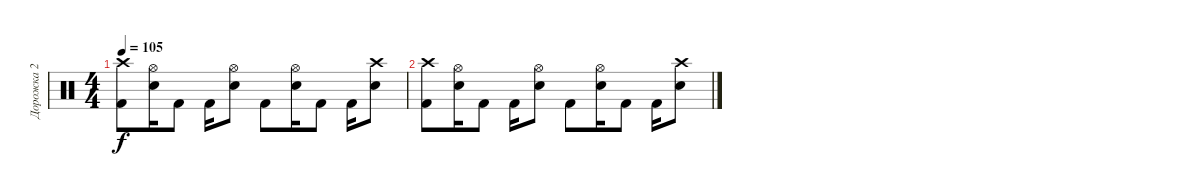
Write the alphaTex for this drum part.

\track ("Дорожка 2" "Дорожка 2") {instrument percussion}
\staff {score}
\articulation defaults
\ts (4 4)
\tempo 105
\clef neutral
\ks c
("Kick (hit) 2" "Crash high (hit)").8{dy f} ("Snare (hit) 2" "Hi-Hat (open)").16 "Kick (hit) 2".8 "Kick (hit) 2".16 ("Snare (hit) 2" "Hi-Hat (open)").8 "Kick (hit) 2".8 ("Snare (hit) 2" "Hi-Hat (open)").16 "Kick (hit) 2".8 "Kick (hit) 2".16 ("Snare (hit) 2" "Crash high (hit)").8 |
("Kick (hit) 2" "Crash high (hit)").8 ("Snare (hit) 2" "Hi-Hat (open)").16 "Kick (hit) 2".8 "Kick (hit) 2".16 ("Snare (hit) 2" "Hi-Hat (open)").8 "Kick (hit) 2".8 ("Snare (hit) 2" "Hi-Hat (open)").16 "Kick (hit) 2".8 "Kick (hit) 2".16 ("Snare (hit) 2" "Crash high (hit)").8
